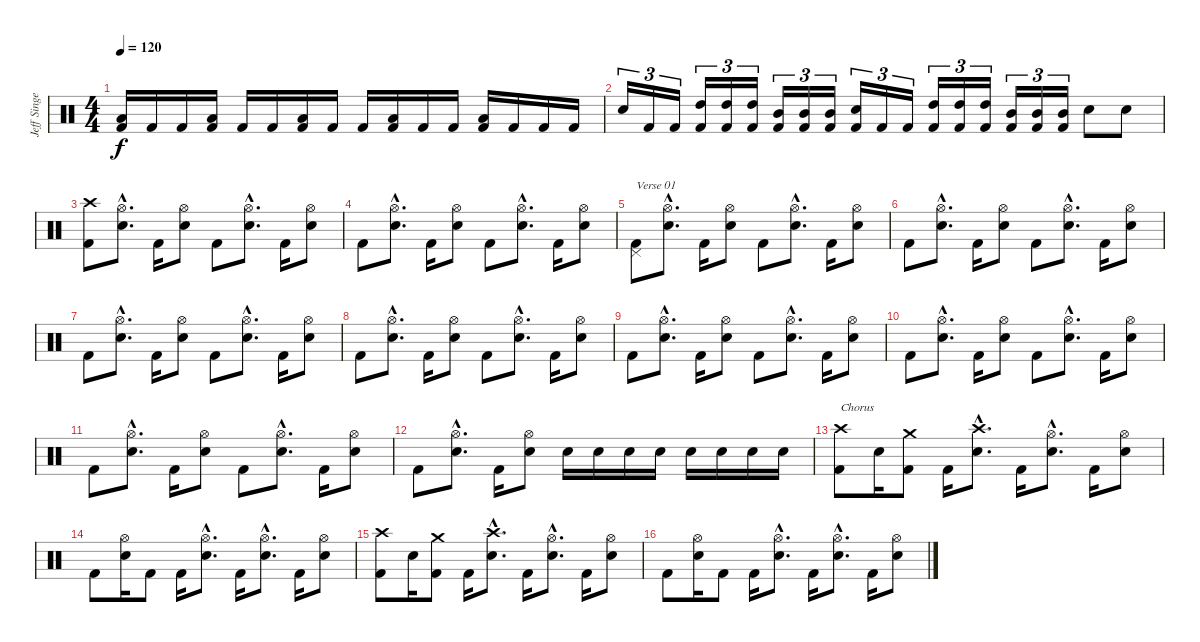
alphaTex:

\track ("Jeff Singer" "Jeff Singe") {instrument percussion}
\staff {score}
\articulation defaults
\ts (4 4)
\tempo 120
\clef neutral
\ks c
("Low Tom (hit)" "Kick (hit) 2").16{dy f} "Kick (hit) 2".16 "Kick (hit) 2".16 ("Low Tom (hit)" "Kick (hit) 2").16 "Kick (hit) 2".16 "Kick (hit) 2".16 ("Low Tom (hit)" "Kick (hit) 2").16 "Kick (hit) 2".16 "Kick (hit) 2".16 ("Low Tom (hit)" "Kick (hit) 2").16 "Kick (hit) 2".16 "Kick (hit) 2".16 ("Low Tom (hit)" "Kick (hit) 2").16 "Kick (hit) 2".16 "Kick (hit) 2".16 "Kick (hit) 2".16 |
"Snare (hit) 2".16{tu (3 2)} "Kick (hit) 2".16{tu (3 2)} "Kick (hit) 2".16{tu (3 2)} ("High Tom (hit)" "Kick (hit) 2").16{tu (3 2)} ("High Tom (hit)" "Kick (hit) 2").16{tu (3 2)} ("High Tom (hit)" "Kick (hit) 2").16{tu (3 2)} ("Mid Tom (hit)" "Kick (hit) 2").16{tu (3 2)} ("Mid Tom (hit)" "Kick (hit) 2").16{tu (3 2)} ("Mid Tom (hit)" "Kick (hit) 2").16{tu (3 2)} ("Snare (hit) 2" "Kick (hit) 2").16{tu (3 2)} "Kick (hit) 2".16{tu (3 2)} "Kick (hit) 2".16{tu (3 2)} ("High Tom (hit)" "Kick (hit) 2").16{tu (3 2)} ("High Tom (hit)" "Kick (hit) 2").16{tu (3 2)} ("High Tom (hit)" "Kick (hit) 2").16{tu (3 2)} ("Mid Tom (hit)" "Kick (hit) 2").16{tu (3 2)} ("Mid Tom (hit)" "Kick (hit) 2").16{tu (3 2)} ("Mid Tom (hit)" "Kick (hit) 2").16{tu (3 2)} "Snare (hit) 2".8 "Snare (hit) 2".8 |
("Crash high (hit)" "Kick (hit) 2").8 ("Hi-Hat (open)"{hac} "Snare (hit) 2"{hac}).8{d} "Kick (hit) 2".16 ("Hi-Hat (open)" "Snare (hit) 2").8 "Kick (hit) 2".8 ("Hi-Hat (open)"{hac} "Snare (hit) 2"{hac}).8{d} "Kick (hit) 2".16 ("Hi-Hat (open)" "Snare (hit) 2").8 |
"Kick (hit) 2".8 ("Hi-Hat (open)"{hac} "Snare (hit) 2"{hac}).8{d} "Kick (hit) 2".16 ("Hi-Hat (open)" "Snare (hit) 2").8 "Kick (hit) 2".8 ("Hi-Hat (open)"{hac} "Snare (hit) 2"{hac}).8{d} "Kick (hit) 2".16 ("Hi-Hat (open)" "Snare (hit) 2").8 |
("Pedal Hi-Hat (hit)" "Kick (hit) 2").8{txt "Verse 01"} ("Hi-Hat (open)"{hac} "Snare (hit) 2"{hac}).8{d} "Kick (hit) 2".16 ("Hi-Hat (open)" "Snare (hit) 2").8 "Kick (hit) 2".8 ("Hi-Hat (open)"{hac} "Snare (hit) 2"{hac}).8{d} "Kick (hit) 2".16 ("Hi-Hat (open)" "Snare (hit) 2").8 |
"Kick (hit) 2".8 ("Hi-Hat (open)"{hac} "Snare (hit) 2"{hac}).8{d} "Kick (hit) 2".16 ("Hi-Hat (open)" "Snare (hit) 2").8 "Kick (hit) 2".8 ("Hi-Hat (open)"{hac} "Snare (hit) 2"{hac}).8{d} "Kick (hit) 2".16 ("Hi-Hat (open)" "Snare (hit) 2").8 |
"Kick (hit) 2".8 ("Hi-Hat (open)"{hac} "Snare (hit) 2"{hac}).8{d} "Kick (hit) 2".16 ("Hi-Hat (open)" "Snare (hit) 2").8 "Kick (hit) 2".8 ("Hi-Hat (open)"{hac} "Snare (hit) 2"{hac}).8{d} "Kick (hit) 2".16 ("Hi-Hat (open)" "Snare (hit) 2").8 |
"Kick (hit) 2".8 ("Hi-Hat (open)"{hac} "Snare (hit) 2"{hac}).8{d} "Kick (hit) 2".16 ("Hi-Hat (open)" "Snare (hit) 2").8 "Kick (hit) 2".8 ("Hi-Hat (open)"{hac} "Snare (hit) 2"{hac}).8{d} "Kick (hit) 2".16 ("Hi-Hat (open)" "Snare (hit) 2").8 |
"Kick (hit) 2".8 ("Hi-Hat (open)"{hac} "Snare (hit) 2"{hac}).8{d} "Kick (hit) 2".16 ("Hi-Hat (open)" "Snare (hit) 2").8 "Kick (hit) 2".8 ("Hi-Hat (open)"{hac} "Snare (hit) 2"{hac}).8{d} "Kick (hit) 2".16 ("Hi-Hat (open)" "Snare (hit) 2").8 |
"Kick (hit) 2".8 ("Hi-Hat (open)"{hac} "Snare (hit) 2"{hac}).8{d} "Kick (hit) 2".16 ("Hi-Hat (open)" "Snare (hit) 2").8 "Kick (hit) 2".8 ("Hi-Hat (open)"{hac} "Snare (hit) 2"{hac}).8{d} "Kick (hit) 2".16 ("Hi-Hat (open)" "Snare (hit) 2").8 |
"Kick (hit) 2".8 ("Hi-Hat (open)"{hac} "Snare (hit) 2"{hac}).8{d} "Kick (hit) 2".16 ("Hi-Hat (open)" "Snare (hit) 2").8 "Kick (hit) 2".8 ("Hi-Hat (open)"{hac} "Snare (hit) 2"{hac}).8{d} "Kick (hit) 2".16 ("Hi-Hat (open)" "Snare (hit) 2").8 |
"Kick (hit) 2".8 ("Hi-Hat (open)"{hac} "Snare (hit) 2"{hac}).8{d} "Kick (hit) 2".16 ("Hi-Hat (open)" "Snare (hit) 2").8 "Snare (hit) 2".16 "Snare (hit) 2".16 "Snare (hit) 2".16 "Snare (hit) 2".16 "Snare (hit) 2".16 "Snare (hit) 2".16 "Snare (hit) 2".16 "Snare (hit) 2".16 |
("Crash high (hit)" "Kick (hit) 2").8{txt "Chorus"} "Snare (hit) 2".16 ("Crash medium (hit)" "Kick (hit) 2").8 "Kick (hit) 2".16 ("Crash high (hit)"{hac} "Snare (hit) 2"{hac}).8{d} "Kick (hit) 2".16 ("Hi-Hat (open)"{hac} "Snare (hit) 2"{hac}).8{d} "Kick (hit) 2".16 ("Hi-Hat (open)" "Snare (hit) 2").8 |
"Kick (hit) 2".8 ("Hi-Hat (open)" "Snare (hit) 2").16 "Kick (hit) 2".8 "Kick (hit) 2".16 ("Hi-Hat (open)"{hac} "Snare (hit) 2"{hac}).8{d} "Kick (hit) 2".16 ("Hi-Hat (open)"{hac} "Snare (hit) 2"{hac}).8{d} "Kick (hit) 2".16 ("Hi-Hat (open)" "Snare (hit) 2").8 |
("Crash high (hit)" "Kick (hit) 2").8 "Snare (hit) 2".16 ("Crash medium (hit)" "Kick (hit) 2").8 "Kick (hit) 2".16 ("Crash high (hit)"{hac} "Snare (hit) 2"{hac}).8{d} "Kick (hit) 2".16 ("Hi-Hat (open)"{hac} "Snare (hit) 2"{hac}).8{d} "Kick (hit) 2".16 ("Hi-Hat (open)" "Snare (hit) 2").8 |
"Kick (hit) 2".8 ("Hi-Hat (open)" "Snare (hit) 2").16 "Kick (hit) 2".8 "Kick (hit) 2".16 ("Hi-Hat (open)"{hac} "Snare (hit) 2"{hac}).8{d} "Kick (hit) 2".16 ("Hi-Hat (open)"{hac} "Snare (hit) 2"{hac}).8{d} "Kick (hit) 2".16 ("Hi-Hat (open)" "Snare (hit) 2").8
